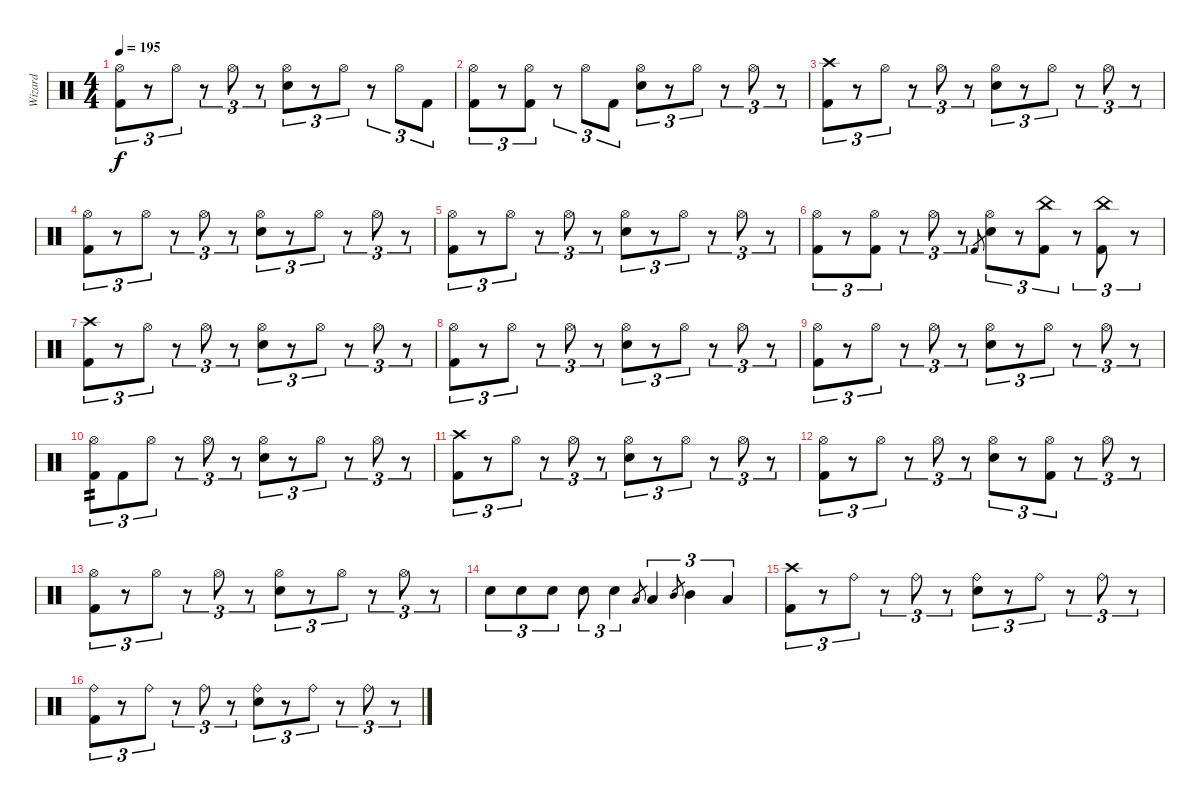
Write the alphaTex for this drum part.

\track ("Wizard" "Wizard") {instrument percussion}
\staff {score}
\articulation defaults
\ts (4 4)
\tempo 195
\clef neutral
\ks c
("Hi-Hat (open)" "Kick (hit) 2").8{tu (3 2) dy f} r.8{tu (3 2)} "Hi-Hat (open)".8{tu (3 2)} r.8{tu (3 2)} "Hi-Hat (open)".8{tu (3 2)} r.8{tu (3 2)} ("Hi-Hat (open)" "Snare (hit) 2").8{tu (3 2)} r.8{tu (3 2)} "Hi-Hat (open)".8{tu (3 2)} r.8{tu (3 2)} "Hi-Hat (open)".8{tu (3 2)} "Kick (hit) 2".8{tu (3 2)} |
("Hi-Hat (open)" "Kick (hit) 2").8{tu (3 2)} r.8{tu (3 2)} ("Hi-Hat (open)" "Kick (hit) 2").8{tu (3 2)} r.8{tu (3 2)} "Hi-Hat (open)".8{tu (3 2)} "Kick (hit) 2".8{tu (3 2)} ("Hi-Hat (open)" "Snare (hit) 2").8{tu (3 2)} r.8{tu (3 2)} "Hi-Hat (open)".8{tu (3 2)} r.8{tu (3 2)} "Hi-Hat (open)".8{tu (3 2)} r.8{tu (3 2)} |
("Crash high (hit)" "Kick (hit) 2").8{tu (3 2)} r.8{tu (3 2)} "Hi-Hat (open)".8{tu (3 2)} r.8{tu (3 2)} "Hi-Hat (open)".8{tu (3 2)} r.8{tu (3 2)} ("Hi-Hat (open)" "Snare (hit) 2").8{tu (3 2)} r.8{tu (3 2)} "Hi-Hat (open)".8{tu (3 2)} r.8{tu (3 2)} "Hi-Hat (open)".8{tu (3 2)} r.8{tu (3 2)} |
("Hi-Hat (open)" "Kick (hit) 2").8{tu (3 2)} r.8{tu (3 2)} "Hi-Hat (open)".8{tu (3 2)} r.8{tu (3 2)} "Hi-Hat (open)".8{tu (3 2)} r.8{tu (3 2)} ("Hi-Hat (open)" "Snare (hit) 2").8{tu (3 2)} r.8{tu (3 2)} "Hi-Hat (open)".8{tu (3 2)} r.8{tu (3 2)} "Hi-Hat (open)".8{tu (3 2)} r.8{tu (3 2)} |
("Hi-Hat (open)" "Kick (hit) 2").8{tu (3 2)} r.8{tu (3 2)} "Hi-Hat (open)".8{tu (3 2)} r.8{tu (3 2)} "Hi-Hat (open)".8{tu (3 2)} r.8{tu (3 2)} ("Hi-Hat (open)" "Snare (hit) 2").8{tu (3 2)} r.8{tu (3 2)} "Hi-Hat (open)".8{tu (3 2)} r.8{tu (3 2)} "Hi-Hat (open)".8{tu (3 2)} r.8{tu (3 2)} |
("Hi-Hat (open)" "Kick (hit) 2").8{tu (3 2)} r.8{tu (3 2)} ("Hi-Hat (open)" "Kick (hit) 2").8{tu (3 2)} r.8{tu (3 2)} "Hi-Hat (open)".8{tu (3 2)} r.8{tu (3 2)} "Kick (hit) 2".8{gr} ("Hi-Hat (open)" "Snare (hit) 2").8{tu (3 2)} r.8{tu (3 2)} ("China (hit)" "Kick (hit) 2").8{tu (3 2)} r.8{tu (3 2)} ("China (hit)" "Kick (hit) 2").8{tu (3 2)} r.8{tu (3 2)} |
("Crash high (hit)" "Kick (hit) 2").8{tu (3 2)} r.8{tu (3 2)} "Hi-Hat (open)".8{tu (3 2)} r.8{tu (3 2)} "Hi-Hat (open)".8{tu (3 2)} r.8{tu (3 2)} ("Hi-Hat (open)" "Snare (hit) 2").8{tu (3 2)} r.8{tu (3 2)} "Hi-Hat (open)".8{tu (3 2)} r.8{tu (3 2)} "Hi-Hat (open)".8{tu (3 2)} r.8{tu (3 2)} |
("Hi-Hat (open)" "Kick (hit) 2").8{tu (3 2)} r.8{tu (3 2)} "Hi-Hat (open)".8{tu (3 2)} r.8{tu (3 2)} "Hi-Hat (open)".8{tu (3 2)} r.8{tu (3 2)} ("Hi-Hat (open)" "Snare (hit) 2").8{tu (3 2)} r.8{tu (3 2)} "Hi-Hat (open)".8{tu (3 2)} r.8{tu (3 2)} "Hi-Hat (open)".8{tu (3 2)} r.8{tu (3 2)} |
("Hi-Hat (open)" "Kick (hit) 2").8{tu (3 2)} r.8{tu (3 2)} "Hi-Hat (open)".8{tu (3 2)} r.8{tu (3 2)} "Hi-Hat (open)".8{tu (3 2)} r.8{tu (3 2)} ("Hi-Hat (open)" "Snare (hit) 2").8{tu (3 2)} r.8{tu (3 2)} "Hi-Hat (open)".8{tu (3 2)} r.8{tu (3 2)} "Hi-Hat (open)".8{tu (3 2)} r.8{tu (3 2)} |
("Hi-Hat (open)" "Kick (hit) 2").8{tu (3 2) tp 2} "Kick (hit) 2".8{tu (3 2)} "Hi-Hat (open)".8{tu (3 2)} r.8{tu (3 2)} "Hi-Hat (open)".8{tu (3 2)} r.8{tu (3 2)} ("Hi-Hat (open)" "Snare (hit) 2").8{tu (3 2)} r.8{tu (3 2)} "Hi-Hat (open)".8{tu (3 2)} r.8{tu (3 2)} "Hi-Hat (open)".8{tu (3 2)} r.8{tu (3 2)} |
("Crash high (hit)" "Kick (hit) 2").8{tu (3 2)} r.8{tu (3 2)} "Hi-Hat (open)".8{tu (3 2)} r.8{tu (3 2)} "Hi-Hat (open)".8{tu (3 2)} r.8{tu (3 2)} ("Hi-Hat (open)" "Snare (hit) 2").8{tu (3 2)} r.8{tu (3 2)} "Hi-Hat (open)".8{tu (3 2)} r.8{tu (3 2)} "Hi-Hat (open)".8{tu (3 2)} r.8{tu (3 2)} |
("Hi-Hat (open)" "Kick (hit) 2").8{tu (3 2)} r.8{tu (3 2)} "Hi-Hat (open)".8{tu (3 2)} r.8{tu (3 2)} "Hi-Hat (open)".8{tu (3 2)} r.8{tu (3 2)} ("Hi-Hat (open)" "Snare (hit) 2").8{tu (3 2)} r.8{tu (3 2)} ("Hi-Hat (open)" "Kick (hit) 2").8{tu (3 2)} r.8{tu (3 2)} "Hi-Hat (open)".8{tu (3 2)} r.8{tu (3 2)} |
("Hi-Hat (open)" "Kick (hit) 2").8{tu (3 2)} r.8{tu (3 2)} "Hi-Hat (open)".8{tu (3 2)} r.8{tu (3 2)} "Hi-Hat (open)".8{tu (3 2)} r.8{tu (3 2)} ("Hi-Hat (open)" "Snare (hit) 2").8{tu (3 2)} r.8{tu (3 2)} "Hi-Hat (open)".8{tu (3 2)} r.8{tu (3 2)} "Hi-Hat (open)".8{tu (3 2)} r.8{tu (3 2)} |
"Snare (hit) 2".8{tu (3 2)} "Snare (hit) 2".8{tu (3 2)} "Snare (hit) 2".8{tu (3 2)} "Snare (hit) 2".8{tu (3 2)} "Snare (hit) 2".4{tu (3 2)} "Low Tom (hit)".8{gr} "Low Tom (hit)".4{tu (3 2)} "Mid Tom (hit)".8{gr} "Mid Tom (hit)".4{tu (3 2)} "Low Tom (hit)".4{tu (3 2)} |
("Crash high (hit)" "Kick (hit) 2").8{tu (3 2)} r.8{tu (3 2)} "Ride (bell)".8{tu (3 2)} r.8{tu (3 2)} "Ride (bell)".8{tu (3 2)} r.8{tu (3 2)} ("Ride (bell)" "Snare (hit) 2").8{tu (3 2)} r.8{tu (3 2)} "Ride (bell)".8{tu (3 2)} r.8{tu (3 2)} "Ride (bell)".8{tu (3 2)} r.8{tu (3 2)} |
("Ride (bell)" "Kick (hit) 2").8{tu (3 2)} r.8{tu (3 2)} "Ride (bell)".8{tu (3 2)} r.8{tu (3 2)} "Ride (bell)".8{tu (3 2)} r.8{tu (3 2)} ("Ride (bell)" "Snare (hit) 2").8{tu (3 2)} r.8{tu (3 2)} "Ride (bell)".8{tu (3 2)} r.8{tu (3 2)} "Ride (bell)".8{tu (3 2)} r.8{tu (3 2)}
